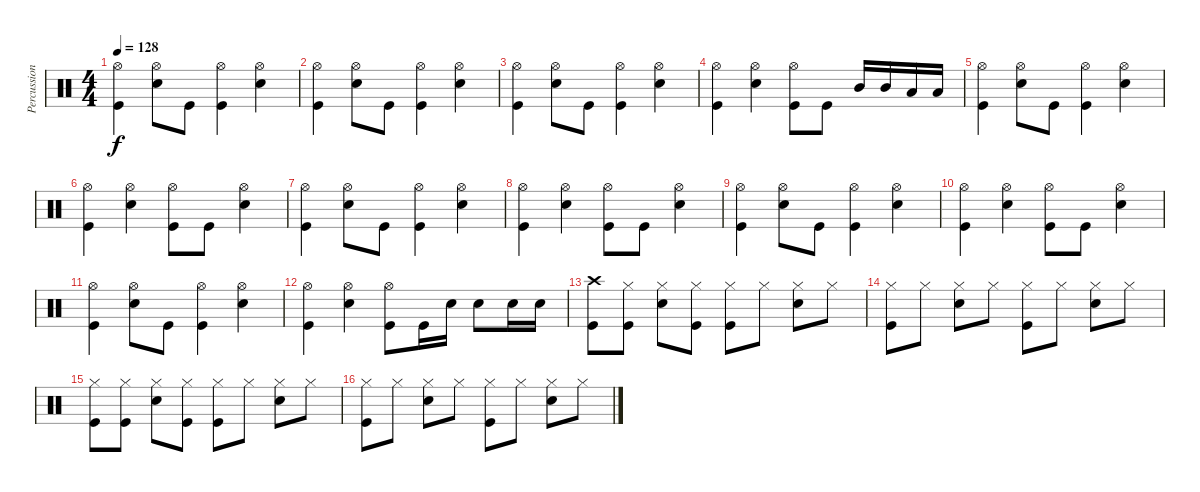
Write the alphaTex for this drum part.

\track ("Percussion" "Percussion") {instrument percussion}
\staff {score}
\articulation defaults
\ts (4 4)
\tempo 128
\clef neutral
\ks c
("Hi-Hat (open)" "Kick (hit)").4{dy f} ("Hi-Hat (open)" "Snare (hit) 2").8 "Kick (hit)".8 ("Hi-Hat (open)" "Kick (hit)").4 ("Hi-Hat (open)" "Snare (hit) 2").4 |
("Hi-Hat (open)" "Kick (hit)").4 ("Hi-Hat (open)" "Snare (hit) 2").8 "Kick (hit)".8 ("Hi-Hat (open)" "Kick (hit)").4 ("Hi-Hat (open)" "Snare (hit) 2").4 |
("Hi-Hat (open)" "Kick (hit)").4 ("Hi-Hat (open)" "Snare (hit) 2").8 "Kick (hit)".8 ("Hi-Hat (open)" "Kick (hit)").4 ("Hi-Hat (open)" "Snare (hit) 2").4 |
("Hi-Hat (open)" "Kick (hit)").4 ("Hi-Hat (open)" "Snare (hit) 2").4 ("Hi-Hat (open)" "Kick (hit)").8 "Kick (hit)".8 "Mid Tom (hit)".16 "Mid Tom (hit)".16 "Low Tom (hit)".16 "Low Tom (hit)".16 |
("Hi-Hat (open)" "Kick (hit)").4 ("Hi-Hat (open)" "Snare (hit) 2").8 "Kick (hit)".8 ("Hi-Hat (open)" "Kick (hit)").4 ("Hi-Hat (open)" "Snare (hit) 2").4 |
("Hi-Hat (open)" "Kick (hit)").4 ("Hi-Hat (open)" "Snare (hit) 2").4 ("Hi-Hat (open)" "Kick (hit)").8 "Kick (hit)".8 ("Hi-Hat (open)" "Snare (hit) 2").4 |
("Hi-Hat (open)" "Kick (hit)").4 ("Hi-Hat (open)" "Snare (hit) 2").8 "Kick (hit)".8 ("Hi-Hat (open)" "Kick (hit)").4 ("Hi-Hat (open)" "Snare (hit) 2").4 |
("Hi-Hat (open)" "Kick (hit)").4 ("Hi-Hat (open)" "Snare (hit) 2").4 ("Hi-Hat (open)" "Kick (hit)").8 "Kick (hit)".8 ("Hi-Hat (open)" "Snare (hit) 2").4 |
("Hi-Hat (open)" "Kick (hit)").4 ("Hi-Hat (open)" "Snare (hit) 2").8 "Kick (hit)".8 ("Hi-Hat (open)" "Kick (hit)").4 ("Hi-Hat (open)" "Snare (hit) 2").4 |
("Hi-Hat (open)" "Kick (hit)").4 ("Hi-Hat (open)" "Snare (hit) 2").4 ("Hi-Hat (open)" "Kick (hit)").8 "Kick (hit)".8 ("Hi-Hat (open)" "Snare (hit) 2").4 |
("Hi-Hat (open)" "Kick (hit)").4 ("Hi-Hat (open)" "Snare (hit) 2").8 "Kick (hit)".8 ("Hi-Hat (open)" "Kick (hit)").4 ("Hi-Hat (open)" "Snare (hit) 2").4 |
("Hi-Hat (open)" "Kick (hit)").4 ("Hi-Hat (open)" "Snare (hit) 2").4 ("Hi-Hat (open)" "Kick (hit)").8 "Kick (hit)".16 "Snare (hit) 2".16 "Snare (hit) 2".8 "Snare (hit) 2".16 "Snare (hit) 2".16 |
("Crash high (hit)" "Kick (hit)").8 ("Hi-Hat (closed)" "Kick (hit)").8 ("Hi-Hat (closed)" "Snare (hit) 2").8 ("Hi-Hat (closed)" "Kick (hit)").8 ("Hi-Hat (closed)" "Kick (hit)").8 "Hi-Hat (closed)".8 ("Hi-Hat (closed)" "Snare (hit) 2").8 "Hi-Hat (closed)".8 |
("Hi-Hat (closed)" "Kick (hit)").8 "Hi-Hat (closed)".8 ("Hi-Hat (closed)" "Snare (hit) 2").8 "Hi-Hat (closed)".8 ("Hi-Hat (closed)" "Kick (hit)").8 "Hi-Hat (closed)".8 ("Hi-Hat (closed)" "Snare (hit) 2").8 "Hi-Hat (closed)".8 |
("Hi-Hat (closed)" "Kick (hit)").8 ("Hi-Hat (closed)" "Kick (hit)").8 ("Hi-Hat (closed)" "Snare (hit) 2").8 ("Hi-Hat (closed)" "Kick (hit)").8 ("Hi-Hat (closed)" "Kick (hit)").8 "Hi-Hat (closed)".8 ("Hi-Hat (closed)" "Snare (hit) 2").8 "Hi-Hat (closed)".8 |
("Hi-Hat (closed)" "Kick (hit)").8 "Hi-Hat (closed)".8 ("Hi-Hat (closed)" "Snare (hit) 2").8 "Hi-Hat (closed)".8 ("Hi-Hat (closed)" "Kick (hit)").8 "Hi-Hat (closed)".8 ("Hi-Hat (closed)" "Snare (hit) 2").8 "Hi-Hat (closed)".8
